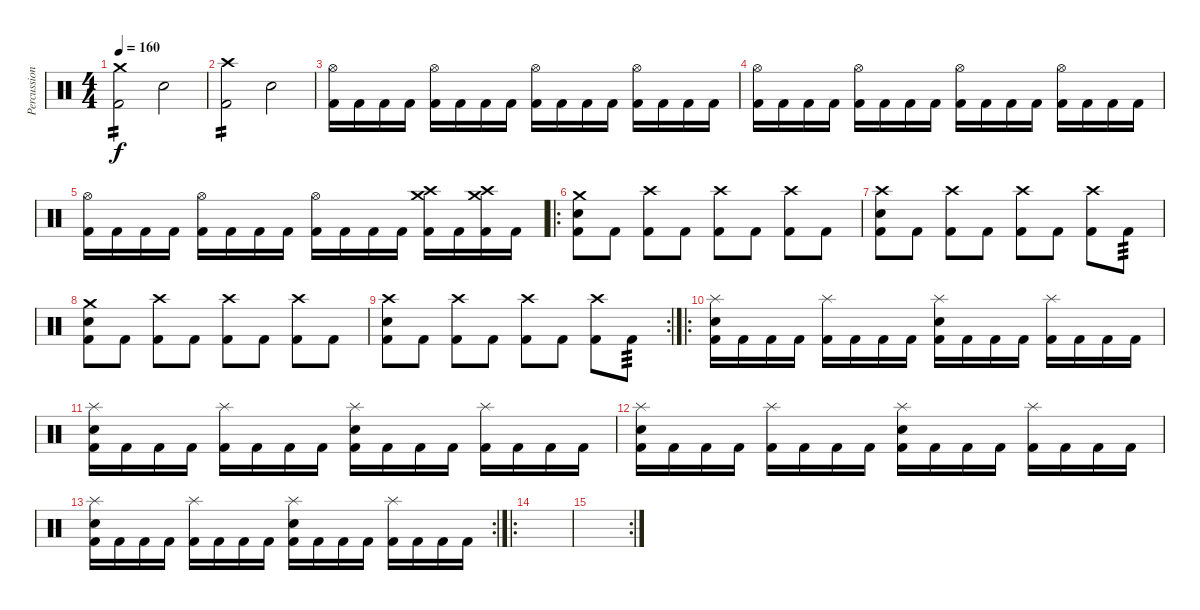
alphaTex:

\track ("Percussion" "Percussion") {instrument percussion}
\staff {score}
\articulation defaults
\ts (4 4)
\tempo 160
\clef neutral
\ks c
("Crash medium (hit)" "Kick (hit) 2").2{tp 2 dy f} "Snare (hit) 2".2 |
("Crash high (hit)" "Kick (hit) 2").2{tp 2} "Snare (hit) 2".2 |
("Hi-Hat (open)" "Kick (hit) 2").16 "Kick (hit) 2".16 "Kick (hit) 2".16 "Kick (hit) 2".16 ("Hi-Hat (open)" "Kick (hit) 2").16 "Kick (hit) 2".16 "Kick (hit) 2".16 "Kick (hit) 2".16 ("Hi-Hat (open)" "Kick (hit) 2").16 "Kick (hit) 2".16 "Kick (hit) 2".16 "Kick (hit) 2".16 ("Hi-Hat (open)" "Kick (hit) 2").16 "Kick (hit) 2".16 "Kick (hit) 2".16 "Kick (hit) 2".16 |
("Hi-Hat (open)" "Kick (hit) 2").16 "Kick (hit) 2".16 "Kick (hit) 2".16 "Kick (hit) 2".16 ("Hi-Hat (open)" "Kick (hit) 2").16 "Kick (hit) 2".16 "Kick (hit) 2".16 "Kick (hit) 2".16 ("Hi-Hat (open)" "Kick (hit) 2").16 "Kick (hit) 2".16 "Kick (hit) 2".16 "Kick (hit) 2".16 ("Hi-Hat (open)" "Kick (hit) 2").16 "Kick (hit) 2".16 "Kick (hit) 2".16 "Kick (hit) 2".16 |
("Hi-Hat (open)" "Kick (hit) 2").16 "Kick (hit) 2".16 "Kick (hit) 2".16 "Kick (hit) 2".16 ("Hi-Hat (open)" "Kick (hit) 2").16 "Kick (hit) 2".16 "Kick (hit) 2".16 "Kick (hit) 2".16 ("Hi-Hat (open)" "Kick (hit) 2").16 "Kick (hit) 2".16 "Kick (hit) 2".16 "Kick (hit) 2".16 ("Crash medium (hit)" "Crash high (hit)" "Kick (hit) 2").16 "Kick (hit) 2".16 ("Crash medium (hit)" "Crash high (hit)" "Kick (hit) 2").16 "Kick (hit) 2".16 |
\ro
("Crash medium (hit)" "Snare (hit) 2" "Kick (hit) 2").8 "Kick (hit) 2".8 ("Crash high (hit)" "Kick (hit) 2").8 "Kick (hit) 2".8 ("Crash high (hit)" "Kick (hit) 2").8 "Kick (hit) 2".8 ("Crash high (hit)" "Kick (hit) 2").8 "Kick (hit) 2".8 |
("Crash high (hit)" "Snare (hit) 2" "Kick (hit) 2").8 "Kick (hit) 2".8 ("Crash high (hit)" "Kick (hit) 2").8 "Kick (hit) 2".8 ("Crash high (hit)" "Kick (hit) 2").8 "Kick (hit) 2".8 ("Crash high (hit)" "Kick (hit) 2").8 "Kick (hit) 2".8{tp 3} |
("Crash medium (hit)" "Snare (hit) 2" "Kick (hit) 2").8 "Kick (hit) 2".8 ("Crash high (hit)" "Kick (hit) 2").8 "Kick (hit) 2".8 ("Crash high (hit)" "Kick (hit) 2").8 "Kick (hit) 2".8 ("Crash high (hit)" "Kick (hit) 2").8 "Kick (hit) 2".8 |
\rc 2
("Crash high (hit)" "Snare (hit) 2" "Kick (hit) 2").8 "Kick (hit) 2".8 ("Crash high (hit)" "Kick (hit) 2").8 "Kick (hit) 2".8 ("Crash high (hit)" "Kick (hit) 2").8 "Kick (hit) 2".8 ("Crash high (hit)" "Kick (hit) 2").8 "Kick (hit) 2".8{tp 3} |
\ro
("Splash (hit)" "Snare (hit) 2" "Kick (hit) 2").16 "Kick (hit) 2".16 "Kick (hit) 2".16 "Kick (hit) 2".16 ("Splash (hit)" "Kick (hit) 2").16 "Kick (hit) 2".16 "Kick (hit) 2".16 "Kick (hit) 2".16 ("Splash (hit)" "Snare (hit) 2" "Kick (hit) 2").16 "Kick (hit) 2".16 "Kick (hit) 2".16 "Kick (hit) 2".16 ("Splash (hit)" "Kick (hit) 2").16 "Kick (hit) 2".16 "Kick (hit) 2".16 "Kick (hit) 2".16 |
("Splash (hit)" "Snare (hit) 2" "Kick (hit) 2").16 "Kick (hit) 2".16 "Kick (hit) 2".16 "Kick (hit) 2".16 ("Splash (hit)" "Kick (hit) 2").16 "Kick (hit) 2".16 "Kick (hit) 2".16 "Kick (hit) 2".16 ("Splash (hit)" "Snare (hit) 2" "Kick (hit) 2").16 "Kick (hit) 2".16 "Kick (hit) 2".16 "Kick (hit) 2".16 ("Splash (hit)" "Kick (hit) 2").16 "Kick (hit) 2".16 "Kick (hit) 2".16 "Kick (hit) 2".16 |
("Splash (hit)" "Snare (hit) 2" "Kick (hit) 2").16 "Kick (hit) 2".16 "Kick (hit) 2".16 "Kick (hit) 2".16 ("Splash (hit)" "Kick (hit) 2").16 "Kick (hit) 2".16 "Kick (hit) 2".16 "Kick (hit) 2".16 ("Splash (hit)" "Snare (hit) 2" "Kick (hit) 2").16 "Kick (hit) 2".16 "Kick (hit) 2".16 "Kick (hit) 2".16 ("Splash (hit)" "Kick (hit) 2").16 "Kick (hit) 2".16 "Kick (hit) 2".16 "Kick (hit) 2".16 |
\rc 2
("Splash (hit)" "Snare (hit) 2" "Kick (hit) 2").16 "Kick (hit) 2".16 "Kick (hit) 2".16 "Kick (hit) 2".16 ("Splash (hit)" "Kick (hit) 2").16 "Kick (hit) 2".16 "Kick (hit) 2".16 "Kick (hit) 2".16 ("Splash (hit)" "Snare (hit) 2" "Kick (hit) 2").16 "Kick (hit) 2".16 "Kick (hit) 2".16 "Kick (hit) 2".16 ("Splash (hit)" "Kick (hit) 2").16 "Kick (hit) 2".16 "Kick (hit) 2".16 "Kick (hit) 2".16 |
\ro
|
\rc 2
